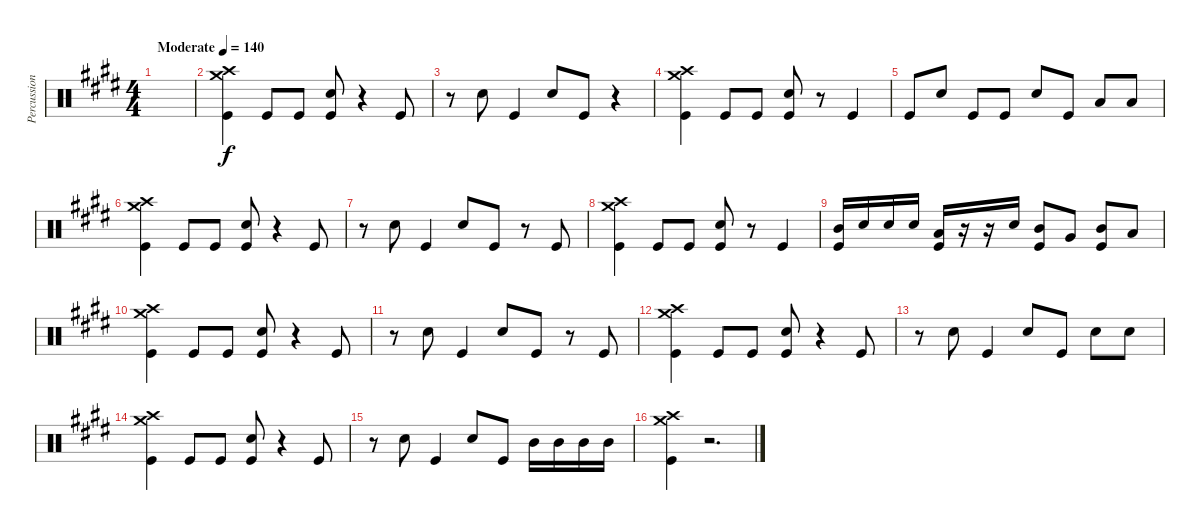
\track ("Percussion" "Percussion") {instrument percussion}
\staff {score}
\articulation defaults
\ts (4 4)
\tempo (140 "Moderate")
\clef neutral
\ks e
|
("Kick (hit)" "Crash high (hit)" "Crash medium (hit)").4 "Kick (hit)".8 "Kick (hit)".8 ("Kick (hit)" "Snare (hit) 2").8 r.4 "Kick (hit)".8 |
r.8 "Snare (hit) 2".8 "Kick (hit)".4 "Snare (hit) 2".8 "Kick (hit)".8 r.4 |
("Kick (hit)" "Crash high (hit)" "Crash medium (hit)").4 "Kick (hit)".8 "Kick (hit)".8 ("Snare (hit) 2" "Kick (hit)").8 r.8 "Kick (hit)".4 |
"Kick (hit)".8 "Snare (hit) 2".8 "Kick (hit)".8 "Kick (hit)".8 "Snare (hit) 2".8 "Kick (hit)".8 "Low Tom (hit)".8 "Low Tom (hit)".8 |
("Kick (hit)" "Crash high (hit)" "Crash medium (hit)").4 "Kick (hit)".8 "Kick (hit)".8 ("Kick (hit)" "Snare (hit) 2").8 r.4 "Kick (hit)".8 |
r.8 "Snare (hit) 2".8 "Kick (hit)".4 "Snare (hit) 2".8 "Kick (hit)".8 r.8 "Kick (hit)".8 |
("Kick (hit)" "Crash high (hit)" "Crash medium (hit)").4 "Kick (hit)".8 "Kick (hit)".8 ("Snare (hit) 2" "Kick (hit)").8 r.8 "Kick (hit)".4 |
("Mid Tom (hit)" "Kick (hit)").16 "Snare (hit) 2".16 "Snare (hit) 2".16 "Snare (hit) 2".16 ("Low Tom (hit)" "Kick (hit)").16 r.16 r.16 "Snare (hit) 2".16 ("Mid Tom (hit)" "Kick (hit)").8 "Very Low Tom (hit)".8 ("Mid Tom (hit)" "Kick (hit)").8 "Low Tom (hit)".8 |
("Kick (hit)" "Crash high (hit)" "Crash medium (hit)").4 "Kick (hit)".8 "Kick (hit)".8 ("Kick (hit)" "Snare (hit) 2").8 r.4 "Kick (hit)".8 |
r.8 "Snare (hit) 2".8 "Kick (hit)".4 "Snare (hit) 2".8 "Kick (hit)".8 r.8 "Kick (hit)".8 |
("Kick (hit)" "Crash high (hit)" "Crash medium (hit)").4 "Kick (hit)".8 "Kick (hit)".8 ("Kick (hit)" "Snare (hit) 2").8 r.4 "Kick (hit)".8 |
r.8 "Snare (hit) 2".8 "Kick (hit)".4 "Snare (hit) 2".8 "Kick (hit)".8 "Snare (hit) 2".8 "Snare (hit) 2".8 |
("Kick (hit)" "Crash high (hit)" "Crash medium (hit)").4 "Kick (hit)".8 "Kick (hit)".8 ("Kick (hit)" "Snare (hit) 2").8 r.4 "Kick (hit)".8 |
r.8 "Snare (hit) 2".8 "Kick (hit)".4 "Snare (hit) 2".8 "Kick (hit)".8 "Mid Tom (hit)".16 "Mid Tom (hit)".16 "Mid Tom (hit)".16 "Mid Tom (hit)".16 |
("Crash high (hit)" "Crash medium (hit)" "Kick (hit)").4 r.2{d}
